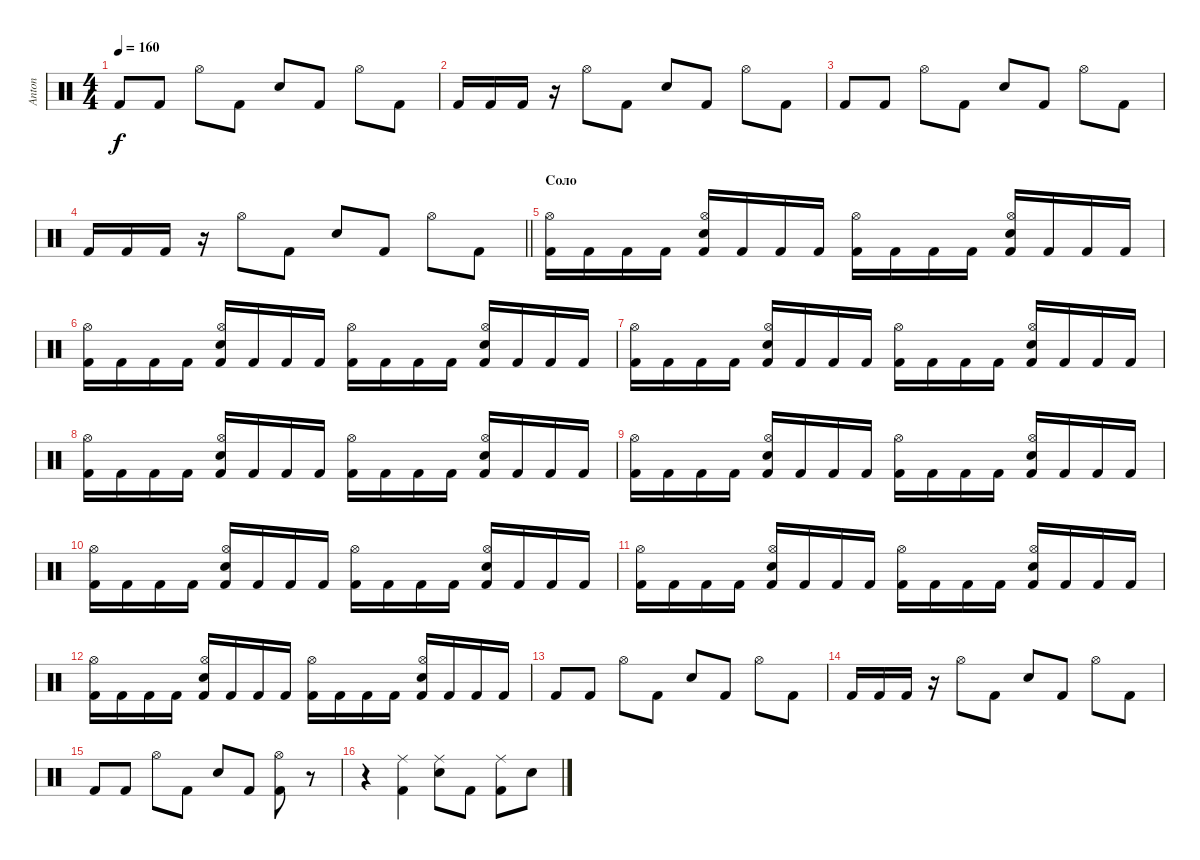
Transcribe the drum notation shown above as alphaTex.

\track ("Anton" "Anton") {instrument percussion}
\staff {score}
\articulation defaults
\ts (4 4)
\tempo 160
\clef neutral
\ks c "Kick (hit) 2".8{dy f} "Kick (hit) 2".8 "Hi-Hat (open)".8 "Kick (hit) 2".8 "Electric Snare (hit)".8 "Kick (hit) 2".8 "Hi-Hat (open)".8 "Kick (hit) 2".8
|
"Kick (hit) 2".16 "Kick (hit) 2".16 "Kick (hit) 2".16 r.16 "Hi-Hat (open)".8 "Kick (hit) 2".8 "Electric Snare (hit)".8 "Kick (hit) 2".8 "Hi-Hat (open)".8 "Kick (hit) 2".8 |
"Kick (hit) 2".8 "Kick (hit) 2".8 "Hi-Hat (open)".8 "Kick (hit) 2".8 "Electric Snare (hit)".8 "Kick (hit) 2".8 "Hi-Hat (open)".8 "Kick (hit) 2".8 |
\barLineRight lightlight "Kick (hit) 2".16 "Kick (hit) 2".16 "Kick (hit) 2".16
r.16 "Hi-Hat (open)".8 "Kick (hit) 2".8 "Electric Snare (hit)".8 "Kick (hit) 2".8 "Hi-Hat (open)".8 "Kick (hit) 2".8 |
\section ("" "Соло")
("Kick (hit) 2" "Hi-Hat (open)").16 "Kick (hit) 2".16 "Kick (hit) 2".16 "Kick (hit) 2".16 ("Kick (hit) 2" "Hi-Hat (open)" "Electric Snare (hit)").16 "Kick (hit) 2".16 "Kick (hit) 2".16 "Kick (hit) 2".16 ("Kick (hit) 2" "Hi-Hat (open)").16 "Kick (hit) 2".16 "Kick (hit) 2".16 "Kick (hit) 2".16 ("Kick (hit) 2" "Hi-Hat (open)" "Electric Snare (hit)").16 "Kick (hit) 2".16 "Kick (hit) 2".16 "Kick (hit) 2".16 |
("Kick (hit) 2" "Hi-Hat (open)").16 "Kick (hit) 2".16 "Kick (hit) 2".16 "Kick (hit) 2".16 ("Kick (hit) 2" "Hi-Hat (open)" "Electric Snare (hit)").16 "Kick (hit) 2".16 "Kick (hit) 2".16 "Kick (hit) 2".16 ("Kick (hit) 2" "Hi-Hat (open)").16 "Kick (hit) 2".16 "Kick (hit) 2".16 "Kick (hit) 2".16 ("Kick (hit) 2" "Hi-Hat (open)" "Electric Snare (hit)").16 "Kick (hit) 2".16 "Kick (hit) 2".16 "Kick (hit) 2".16 |
("Kick (hit) 2" "Hi-Hat (open)").16 "Kick (hit) 2".16 "Kick (hit) 2".16 "Kick (hit) 2".16 ("Kick (hit) 2" "Hi-Hat (open)" "Electric Snare (hit)").16 "Kick (hit) 2".16 "Kick (hit) 2".16 "Kick (hit) 2".16 ("Kick (hit) 2" "Hi-Hat (open)").16 "Kick (hit) 2".16 "Kick (hit) 2".16 "Kick (hit) 2".16 ("Kick (hit) 2" "Hi-Hat (open)" "Electric Snare (hit)").16 "Kick (hit) 2".16 "Kick (hit) 2".16 "Kick (hit) 2".16 |
("Kick (hit) 2" "Hi-Hat (open)").16 "Kick (hit) 2".16 "Kick (hit) 2".16 "Kick (hit) 2".16 ("Kick (hit) 2" "Hi-Hat (open)" "Electric Snare (hit)").16 "Kick (hit) 2".16 "Kick (hit) 2".16 "Kick (hit) 2".16 ("Kick (hit) 2" "Hi-Hat (open)").16 "Kick (hit) 2".16 "Kick (hit) 2".16 "Kick (hit) 2".16 ("Kick (hit) 2" "Hi-Hat (open)" "Electric Snare (hit)").16 "Kick (hit) 2".16 "Kick (hit) 2".16 "Kick (hit) 2".16 |
("Kick (hit) 2" "Hi-Hat (open)").16 "Kick (hit) 2".16 "Kick (hit) 2".16 "Kick (hit) 2".16 ("Kick (hit) 2" "Hi-Hat (open)" "Electric Snare (hit)").16 "Kick (hit) 2".16 "Kick (hit) 2".16 "Kick (hit) 2".16 ("Kick (hit) 2" "Hi-Hat (open)").16 "Kick (hit) 2".16 "Kick (hit) 2".16 "Kick (hit) 2".16 ("Kick (hit) 2" "Hi-Hat (open)" "Electric Snare (hit)").16 "Kick (hit) 2".16 "Kick (hit) 2".16 "Kick (hit) 2".16 |
("Kick (hit) 2" "Hi-Hat (open)").16 "Kick (hit) 2".16 "Kick (hit) 2".16 "Kick (hit) 2".16 ("Kick (hit) 2" "Hi-Hat (open)" "Electric Snare (hit)").16 "Kick (hit) 2".16 "Kick (hit) 2".16 "Kick (hit) 2".16 ("Kick (hit) 2" "Hi-Hat (open)").16 "Kick (hit) 2".16 "Kick (hit) 2".16 "Kick (hit) 2".16 ("Kick (hit) 2" "Hi-Hat (open)" "Electric Snare (hit)").16 "Kick (hit) 2".16 "Kick (hit) 2".16 "Kick (hit) 2".16 |
("Kick (hit) 2" "Hi-Hat (open)").16 "Kick (hit) 2".16 "Kick (hit) 2".16 "Kick (hit) 2".16 ("Kick (hit) 2" "Hi-Hat (open)" "Electric Snare (hit)").16 "Kick (hit) 2".16 "Kick (hit) 2".16 "Kick (hit) 2".16 ("Kick (hit) 2" "Hi-Hat (open)").16 "Kick (hit) 2".16 "Kick (hit) 2".16 "Kick (hit) 2".16 ("Kick (hit) 2" "Hi-Hat (open)" "Electric Snare (hit)").16 "Kick (hit) 2".16 "Kick (hit) 2".16 "Kick (hit) 2".16 |
("Kick (hit) 2" "Hi-Hat (open)").16 "Kick (hit) 2".16 "Kick (hit) 2".16 "Kick (hit) 2".16 ("Kick (hit) 2" "Hi-Hat (open)" "Electric Snare (hit)").16 "Kick (hit) 2".16 "Kick (hit) 2".16 "Kick (hit) 2".16 ("Kick (hit) 2" "Hi-Hat (open)").16 "Kick (hit) 2".16 "Kick (hit) 2".16 "Kick (hit) 2".16 ("Kick (hit) 2" "Hi-Hat (open)" "Electric Snare (hit)").16 "Kick (hit) 2".16 "Kick (hit) 2".16 "Kick (hit) 2".16 |
"Kick (hit) 2".8 "Kick (hit) 2".8 "Hi-Hat (open)".8 "Kick (hit) 2".8 "Electric Snare (hit)".8 "Kick (hit) 2".8 "Hi-Hat (open)".8 "Kick (hit) 2".8 |
"Kick (hit) 2".16 "Kick (hit) 2".16 "Kick (hit) 2".16 r.16 "Hi-Hat (open)".8 "Kick (hit) 2".8 "Electric Snare (hit)".8 "Kick (hit) 2".8 "Hi-Hat (open)".8 "Kick (hit) 2".8 |
"Kick (hit) 2".8 "Kick (hit) 2".8 "Hi-Hat (open)".8 "Kick (hit) 2".8 "Electric Snare (hit)".8 "Kick (hit) 2".8 ("Kick (hit) 2" "Hi-Hat (open)").8 r.8 |
r.4 ("Kick (hit) 2" "Ride (middle)").4 ("Electric Snare (hit)" "Ride (middle)").8 "Kick (hit) 2".8 ("Kick (hit) 2" "Ride (middle)").8 "Electric Snare (hit)".8
